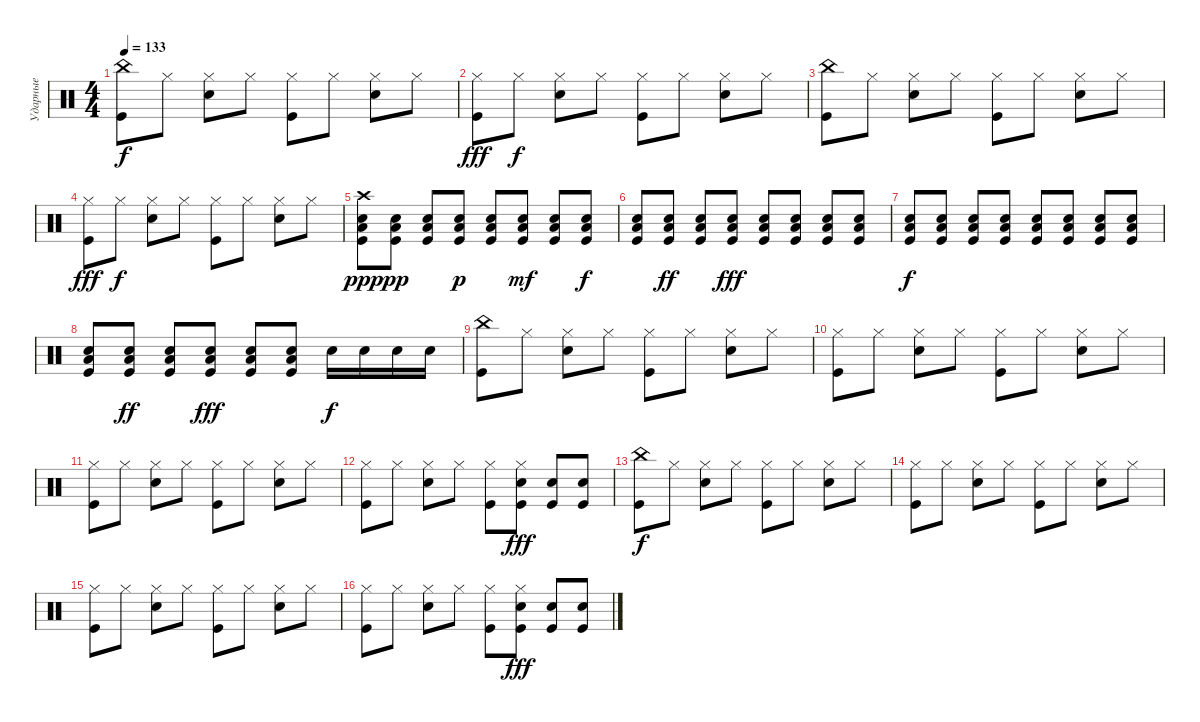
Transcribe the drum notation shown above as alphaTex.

\track ("Ударные" "Ударные") {instrument percussion}
\staff {score}
\articulation defaults
\ts (4 4)
\tempo 133
\clef neutral
\ks c
("China (hit)" "Kick (hit)").8{dy f} "Hi-Hat (closed)".8 ("Hi-Hat (closed)" "Electric Snare (hit)").8 "Hi-Hat (closed)".8 ("Hi-Hat (closed)" "Kick (hit)").8 "Hi-Hat (closed)".8 ("Hi-Hat (closed)" "Electric Snare (hit)").8 "Hi-Hat (closed)".8 |
("Hi-Hat (closed)" "Kick (hit)").8{dy fff} "Hi-Hat (closed)".8{dy f} ("Hi-Hat (closed)" "Electric Snare (hit)").8 "Hi-Hat (closed)".8 ("Hi-Hat (closed)" "Kick (hit)").8 "Hi-Hat (closed)".8 ("Hi-Hat (closed)" "Electric Snare (hit)").8 "Hi-Hat (closed)".8 |
("China (hit)" "Kick (hit)").8 "Hi-Hat (closed)".8 ("Hi-Hat (closed)" "Electric Snare (hit)").8 "Hi-Hat (closed)".8 ("Hi-Hat (closed)" "Kick (hit)").8 "Hi-Hat (closed)".8 ("Hi-Hat (closed)" "Electric Snare (hit)").8 "Hi-Hat (closed)".8 |
("Hi-Hat (closed)" "Kick (hit)").8{dy fff} "Hi-Hat (closed)".8{dy f} ("Hi-Hat (closed)" "Electric Snare (hit)").8 "Hi-Hat (closed)".8 ("Hi-Hat (closed)" "Kick (hit)").8 "Hi-Hat (closed)".8 ("Hi-Hat (closed)" "Electric Snare (hit)").8 "Hi-Hat (closed)".8 |
("Low Floor Tom (hit)" "Crash high (hit)" "Electric Snare (hit)" "Kick (hit)").8{dy ppp} ("Low Floor Tom (hit)" "Electric Snare (hit)" "Kick (hit)").8{dy pp} ("Low Floor Tom (hit)" "Electric Snare (hit)" "Kick (hit)").8 ("Low Floor Tom (hit)" "Electric Snare (hit)" "Kick (hit)").8{dy p} ("Low Floor Tom (hit)" "Electric Snare (hit)" "Kick (hit)").8 ("Low Floor Tom (hit)" "Electric Snare (hit)" "Kick (hit)").8{dy mf} ("Low Floor Tom (hit)" "Electric Snare (hit)" "Kick (hit)").8 ("Low Floor Tom (hit)" "Electric Snare (hit)" "Kick (hit)").8{dy f} |
("Low Floor Tom (hit)" "Electric Snare (hit)" "Kick (hit)").8 ("Low Floor Tom (hit)" "Electric Snare (hit)" "Kick (hit)").8{dy ff} ("Low Floor Tom (hit)" "Electric Snare (hit)" "Kick (hit)").8 ("Low Floor Tom (hit)" "Electric Snare (hit)" "Kick (hit)").8{dy fff} ("Low Floor Tom (hit)" "Electric Snare (hit)" "Kick (hit)").8 ("Low Floor Tom (hit)" "Electric Snare (hit)" "Kick (hit)").8 ("Low Floor Tom (hit)" "Electric Snare (hit)" "Kick (hit)").8 ("Low Floor Tom (hit)" "Electric Snare (hit)" "Kick (hit)").8 |
("Low Floor Tom (hit)" "Electric Snare (hit)" "Kick (hit)").8{dy f} ("Low Floor Tom (hit)" "Electric Snare (hit)" "Kick (hit)").8 ("Low Floor Tom (hit)" "Electric Snare (hit)" "Kick (hit)").8 ("Low Floor Tom (hit)" "Electric Snare (hit)" "Kick (hit)").8 ("Low Floor Tom (hit)" "Electric Snare (hit)" "Kick (hit)").8 ("Low Floor Tom (hit)" "Electric Snare (hit)" "Kick (hit)").8 ("Low Floor Tom (hit)" "Electric Snare (hit)" "Kick (hit)").8 ("Low Floor Tom (hit)" "Electric Snare (hit)" "Kick (hit)").8 |
("Low Floor Tom (hit)" "Electric Snare (hit)" "Kick (hit)").8 ("Low Floor Tom (hit)" "Electric Snare (hit)" "Kick (hit)").8{dy ff} ("Low Floor Tom (hit)" "Electric Snare (hit)" "Kick (hit)").8 ("Low Floor Tom (hit)" "Electric Snare (hit)" "Kick (hit)").8{dy fff} ("Low Floor Tom (hit)" "Electric Snare (hit)" "Kick (hit)").8 ("Low Floor Tom (hit)" "Electric Snare (hit)" "Kick (hit)").8 "Electric Snare (hit)".16{dy f} "Electric Snare (hit)".16 "Electric Snare (hit)".16 "Electric Snare (hit)".16 |
("China (hit)" "Kick (hit)").8 "Hi-Hat (closed)".8 ("Hi-Hat (closed)" "Electric Snare (hit)").8 "Hi-Hat (closed)".8 ("Hi-Hat (closed)" "Kick (hit)").8 "Hi-Hat (closed)".8 ("Hi-Hat (closed)" "Electric Snare (hit)").8 "Hi-Hat (closed)".8 |
("Hi-Hat (closed)" "Kick (hit)").8 "Hi-Hat (closed)".8 ("Hi-Hat (closed)" "Electric Snare (hit)").8 "Hi-Hat (closed)".8 ("Hi-Hat (closed)" "Kick (hit)").8 "Hi-Hat (closed)".8 ("Hi-Hat (closed)" "Electric Snare (hit)").8 "Hi-Hat (closed)".8 |
("Hi-Hat (closed)" "Kick (hit)").8 "Hi-Hat (closed)".8 ("Hi-Hat (closed)" "Electric Snare (hit)").8 "Hi-Hat (closed)".8 ("Hi-Hat (closed)" "Kick (hit)").8 "Hi-Hat (closed)".8 ("Hi-Hat (closed)" "Electric Snare (hit)").8 "Hi-Hat (closed)".8 |
("Hi-Hat (closed)" "Kick (hit)").8 "Hi-Hat (closed)".8 ("Hi-Hat (closed)" "Electric Snare (hit)").8 "Hi-Hat (closed)".8 ("Hi-Hat (closed)" "Kick (hit)").8 ("Electric Snare (hit)" "Hi-Hat (closed)" "Kick (hit)").8{dy fff} ("Electric Snare (hit)" "Kick (hit)").8 ("Electric Snare (hit)" "Kick (hit)").8 |
("China (hit)" "Kick (hit)").8{dy f} "Hi-Hat (closed)".8 ("Hi-Hat (closed)" "Electric Snare (hit)").8 "Hi-Hat (closed)".8 ("Hi-Hat (closed)" "Kick (hit)").8 "Hi-Hat (closed)".8 ("Hi-Hat (closed)" "Electric Snare (hit)").8 "Hi-Hat (closed)".8 |
("Hi-Hat (closed)" "Kick (hit)").8 "Hi-Hat (closed)".8 ("Hi-Hat (closed)" "Electric Snare (hit)").8 "Hi-Hat (closed)".8 ("Hi-Hat (closed)" "Kick (hit)").8 "Hi-Hat (closed)".8 ("Hi-Hat (closed)" "Electric Snare (hit)").8 "Hi-Hat (closed)".8 |
("Hi-Hat (closed)" "Kick (hit)").8 "Hi-Hat (closed)".8 ("Hi-Hat (closed)" "Electric Snare (hit)").8 "Hi-Hat (closed)".8 ("Hi-Hat (closed)" "Kick (hit)").8 "Hi-Hat (closed)".8 ("Hi-Hat (closed)" "Electric Snare (hit)").8 "Hi-Hat (closed)".8 |
("Hi-Hat (closed)" "Kick (hit)").8 "Hi-Hat (closed)".8 ("Hi-Hat (closed)" "Electric Snare (hit)").8 "Hi-Hat (closed)".8 ("Hi-Hat (closed)" "Kick (hit)").8 ("Electric Snare (hit)" "Hi-Hat (closed)" "Kick (hit)").8{dy fff} ("Electric Snare (hit)" "Kick (hit)").8 ("Electric Snare (hit)" "Kick (hit)").8
